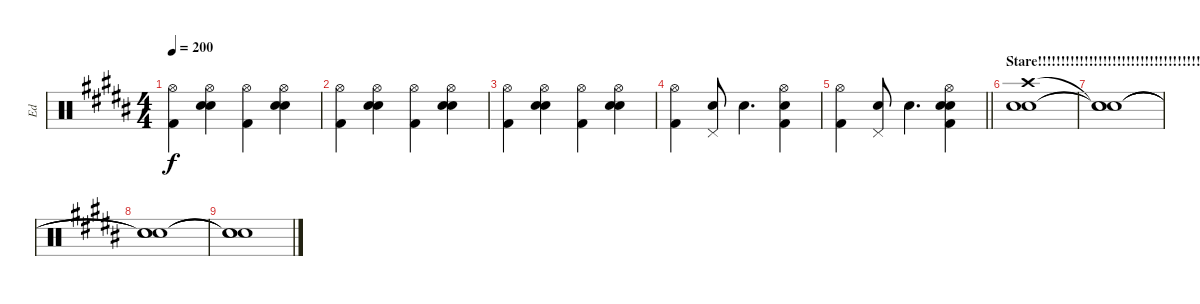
\track ("Ed" "Ed") {instrument percussion bank 127}
\staff {score}
\articulation defaults
\ts (4 4)
\tempo 200
\clef neutral
\ks g#minor
("Hi-Hat (open)" "Kick (hit) 2").4{dy f} ("Hi-Hat (open)" "Electric Snare (hit)" "Electric Snare (hit)").4 ("Hi-Hat (open)" "Kick (hit) 2").4 ("Hi-Hat (open)" "Electric Snare (hit)" "Electric Snare (hit)").4 |
("Hi-Hat (open)" "Kick (hit) 2").4 ("Hi-Hat (open)" "Electric Snare (hit)" "Electric Snare (hit)").4 ("Hi-Hat (open)" "Kick (hit) 2").4 ("Hi-Hat (open)" "Electric Snare (hit)" "Electric Snare (hit)").4 |
("Hi-Hat (open)" "Kick (hit) 2").4 ("Hi-Hat (open)" "Electric Snare (hit)" "Electric Snare (hit)").4 ("Hi-Hat (open)" "Kick (hit) 2").4 ("Hi-Hat (open)" "Electric Snare (hit)" "Electric Snare (hit)").4 |
("Hi-Hat (open)" "Kick (hit) 2").4 ("Pedal Hi-Hat (hit)" "Electric Snare (hit)").8 "Electric Snare (hit)".4{d} ("Hi-Hat (open)" "Electric Snare (hit)" "Kick (hit) 2").4 |
\barLineRight lightlight
("Hi-Hat (open)" "Kick (hit) 2").4 ("Pedal Hi-Hat (hit)" "Electric Snare (hit)").8 "Electric Snare (hit)".4{d} ("Hi-Hat (open)" "Electric Snare (hit)" "Electric Snare (hit)" "Kick (hit) 2").4 |
\section ("" "Stare!!!!!!!!!!!!!!!!!!!!!!!!!!!!!!!!!!!!!!!!!!!!!!!!")
("Crash high (hit)" "Electric Snare (hit)" "Electric Snare (hit)").1 |
("Snare (hit)"{t} "Snare (hit)"{t} "Snare (hit)"{t}).1 |
("Snare (hit)"{t} "Snare (hit)"{t} "Snare (hit)"{t}).1 |
("Snare (hit)"{t} "Snare (hit)"{t} "Snare (hit)"{t}).1
